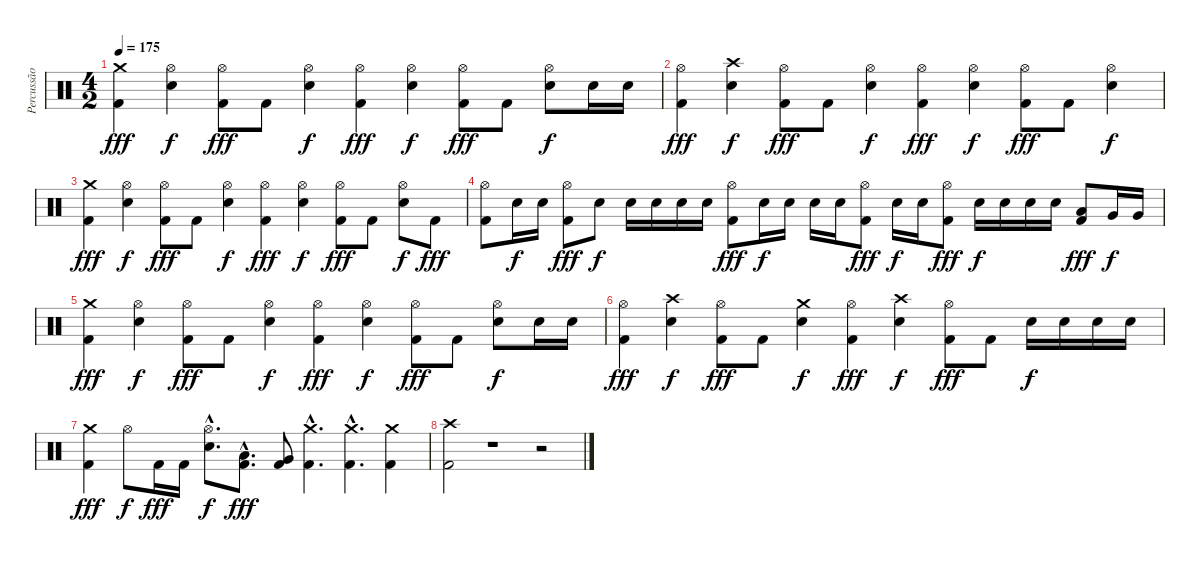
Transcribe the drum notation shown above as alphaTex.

\track ("Percussão" "Percussão") {instrument percussion}
\staff {score}
\articulation defaults
\ts (4 2)
\tempo 175
\clef neutral
\ks c
("Crash medium (hit)" "Kick (hit) 2").4{dy fff} ("Hi-Hat (open)" "Electric Snare (hit)").4{dy f} ("Hi-Hat (open)" "Kick (hit) 2").8{dy fff} "Kick (hit) 2".8 ("Hi-Hat (open)" "Electric Snare (hit)").4{dy f} ("Hi-Hat (open)" "Kick (hit) 2").4{dy fff} ("Hi-Hat (open)" "Electric Snare (hit)").4{dy f} ("Hi-Hat (open)" "Kick (hit) 2").8{dy fff} "Kick (hit) 2".8 ("Hi-Hat (open)" "Electric Snare (hit)").8{dy f} "Electric Snare (hit)".16 "Electric Snare (hit)".16 |
("Hi-Hat (open)" "Kick (hit) 2").4{dy fff} ("Crash high (hit)" "Electric Snare (hit)").4{dy f} ("Hi-Hat (open)" "Kick (hit) 2").8{dy fff} "Kick (hit) 2".8 ("Hi-Hat (open)" "Electric Snare (hit)").4{dy f} ("Hi-Hat (open)" "Kick (hit) 2").4{dy fff} ("Hi-Hat (open)" "Electric Snare (hit)").4{dy f} ("Hi-Hat (open)" "Kick (hit) 2").8{dy fff} "Kick (hit) 2".8 ("Hi-Hat (open)" "Electric Snare (hit)").4{dy f} |
("Crash medium (hit)" "Kick (hit) 2").4{dy fff} ("Hi-Hat (open)" "Electric Snare (hit)").4{dy f} ("Hi-Hat (open)" "Kick (hit) 2").8{dy fff} "Kick (hit) 2".8 ("Hi-Hat (open)" "Electric Snare (hit)").4{dy f} ("Hi-Hat (open)" "Kick (hit) 2").4{dy fff} ("Hi-Hat (open)" "Electric Snare (hit)").4{dy f} ("Hi-Hat (open)" "Kick (hit) 2").8{dy fff} "Kick (hit) 2".8 ("Hi-Hat (open)" "Electric Snare (hit)").8{dy f} "Kick (hit) 2".8{dy fff} |
("Hi-Hat (open)" "Kick (hit) 2").8 "Electric Snare (hit)".16{dy f} "Electric Snare (hit)".16 ("Hi-Hat (open)" "Kick (hit) 2").8{dy fff} "Electric Snare (hit)".8{dy f} "Electric Snare (hit)".16 "Electric Snare (hit)".16 "Electric Snare (hit)".16 "Electric Snare (hit)".16 ("Hi-Hat (open)" "Kick (hit) 2").8{dy fff} "Electric Snare (hit)".16{dy f} "Electric Snare (hit)".16 "Electric Snare (hit)".16 "Electric Snare (hit)".16 ("Hi-Hat (open)" "Kick (hit) 2").8{dy fff} "Electric Snare (hit)".16{dy f} "Electric Snare (hit)".16 ("Hi-Hat (open)" "Kick (hit) 2").8{dy fff} "Electric Snare (hit)".16{dy f} "Electric Snare (hit)".16 "Electric Snare (hit)".16 "Electric Snare (hit)".16 ("Low Tom (hit)" "Kick (hit) 2").8{dy fff} "Very Low Tom (hit)".16{dy f} "Very Low Tom (hit)".16 |
("Crash medium (hit)" "Kick (hit) 2").4{dy fff} ("Hi-Hat (open)" "Electric Snare (hit)").4{dy f} ("Hi-Hat (open)" "Kick (hit) 2").8{dy fff} "Kick (hit) 2".8 ("Hi-Hat (open)" "Electric Snare (hit)").4{dy f} ("Hi-Hat (open)" "Kick (hit) 2").4{dy fff} ("Hi-Hat (open)" "Electric Snare (hit)").4{dy f} ("Hi-Hat (open)" "Kick (hit) 2").8{dy fff} "Kick (hit) 2".8 ("Hi-Hat (open)" "Electric Snare (hit)").8{dy f} "Electric Snare (hit)".16 "Electric Snare (hit)".16 |
("Hi-Hat (open)" "Kick (hit) 2").4{dy fff} ("Crash high (hit)" "Electric Snare (hit)").4{dy f} ("Hi-Hat (open)" "Kick (hit) 2").8{dy fff} "Kick (hit) 2".8 ("Crash medium (hit)" "Electric Snare (hit)").4{dy f} ("Hi-Hat (open)" "Kick (hit) 2").4{dy fff} ("Crash high (hit)" "Electric Snare (hit)").4{dy f} ("Hi-Hat (open)" "Kick (hit) 2").8{dy fff} "Kick (hit) 2".8 "Electric Snare (hit)".16{dy f} "Electric Snare (hit)".16 "Electric Snare (hit)".16 "Electric Snare (hit)".16 |
("Crash medium (hit)" "Kick (hit) 2").4{dy fff} "Hi-Hat (open)".8{dy f} "Kick (hit) 2".16{dy fff} "Kick (hit) 2".16 ("Hi-Hat (open)"{hac} "Electric Snare (hit)"{hac}).8{d dy f} ("Low Tom (hit)"{hac} "Kick (hit) 2"{hac}).8{d dy fff} ("Very Low Tom (hit)" "Kick (hit) 2").8 ("Crash medium (hit)"{hac} "Kick (hit) 2"{hac}).4{d} ("Crash medium (hit)"{hac} "Kick (hit) 2"{hac}).4{d} ("Crash medium (hit)" "Kick (hit) 2").4 |
("Crash high (hit)" "Kick (hit) 2").2 r.1 r.2
